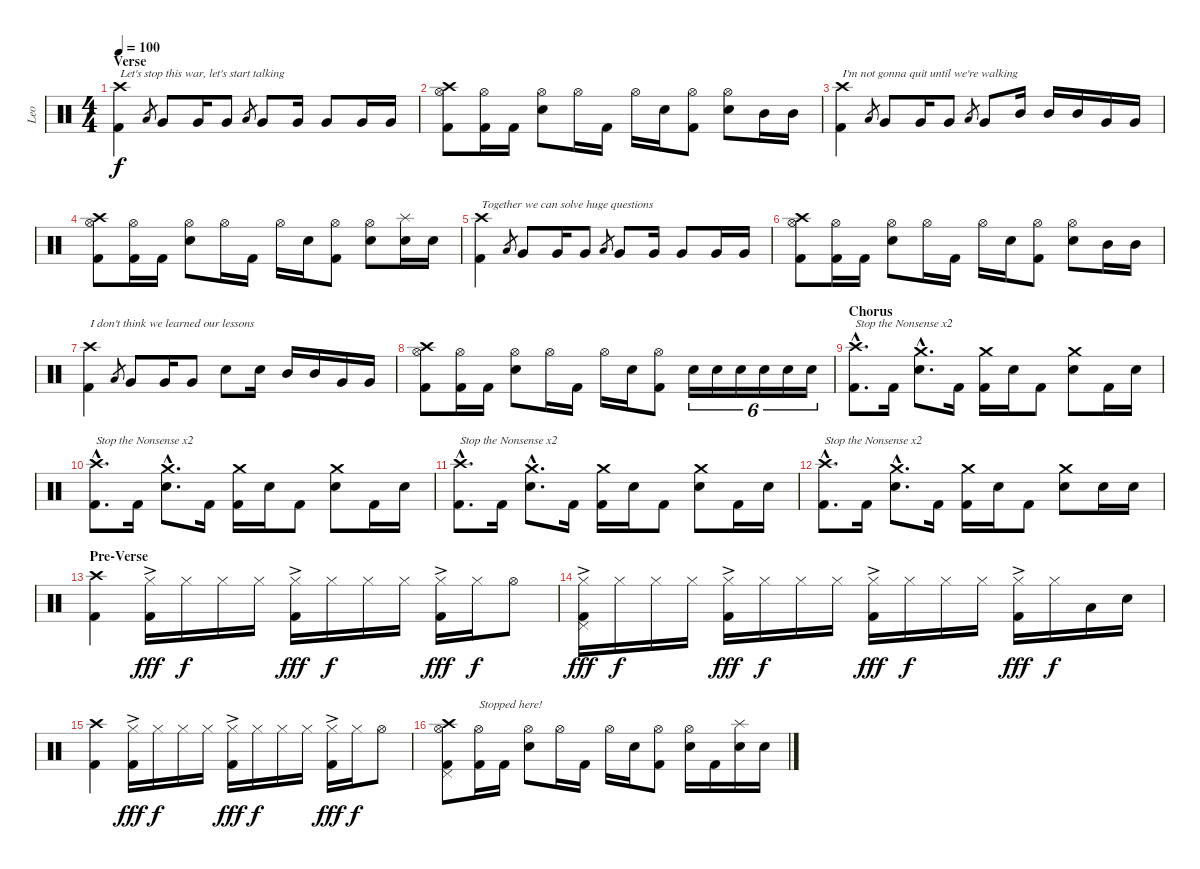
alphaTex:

\track ("Leo" "Leo") {instrument percussion}
\staff {score}
\articulation defaults
\ts (4 4)
\section ("" "Verse")
\tempo 100
\clef neutral
\ks c
("Crash high (hit)" "Kick (hit) 2").4{txt "Let's stop this war, let's start talking" dy f} "Low Tom (hit)".8{gr} "Very Low Tom (hit)".8 "Very Low Tom (hit)".16 "Very Low Tom (hit)".8 "Low Tom (hit)".8{gr} "Very Low Tom (hit)".8 "Very Low Tom (hit)".16 "Very Low Tom (hit)".8 "Very Low Tom (hit)".16 "Very Low Tom (hit)".16 |
("Hi-Hat (open)" "Crash high (hit)" "Kick (hit) 2").8 ("Hi-Hat (open)" "Kick (hit) 2").16 "Kick (hit) 2".16 ("Hi-Hat (open)" "Electric Snare (hit)").8 "Hi-Hat (open)".16 "Kick (hit) 2".16 "Hi-Hat (open)".16 "Electric Snare (hit)".16 ("Hi-Hat (open)" "Kick (hit) 2").8 ("Hi-Hat (open)" "Electric Snare (hit)").8 "Mid Tom (hit)".16 "Mid Tom (hit)".16 |
("Crash high (hit)" "Kick (hit) 2").4{txt "I'm not gonna quit until we're walking"} "Low Tom (hit)".8{gr} "Very Low Tom (hit)".8 "Very Low Tom (hit)".16 "Very Low Tom (hit)".8 "Low Tom (hit)".8{gr} "Very Low Tom (hit)".8 "Mid Tom (hit)".16 "Mid Tom (hit)".16 "Mid Tom (hit)".16 "Very Low Tom (hit)".16 "Very Low Tom (hit)".16 |
("Hi-Hat (open)" "Crash high (hit)" "Kick (hit) 2").8 ("Hi-Hat (open)" "Kick (hit) 2").16 "Kick (hit) 2".16 ("Hi-Hat (open)" "Electric Snare (hit)").8 "Hi-Hat (open)".16 "Kick (hit) 2".16 "Hi-Hat (open)".16 "Electric Snare (hit)".16 ("Hi-Hat (open)" "Kick (hit) 2").8 ("Hi-Hat (open)" "Electric Snare (hit)").8 ("Splash (hit)" "Electric Snare (hit)").16 "Electric Snare (hit)".16 |
("Crash high (hit)" "Kick (hit) 2").4{txt "Together we can solve huge questions"} "Low Tom (hit)".8{gr} "Very Low Tom (hit)".8 "Very Low Tom (hit)".16 "Very Low Tom (hit)".8 "Low Tom (hit)".8{gr} "Very Low Tom (hit)".8 "Very Low Tom (hit)".16 "Very Low Tom (hit)".8 "Very Low Tom (hit)".16 "Very Low Tom (hit)".16 |
("Hi-Hat (open)" "Crash high (hit)" "Kick (hit) 2").8 ("Hi-Hat (open)" "Kick (hit) 2").16 "Kick (hit) 2".16 ("Hi-Hat (open)" "Electric Snare (hit)").8 "Hi-Hat (open)".16 "Kick (hit) 2".16 "Hi-Hat (open)".16 "Electric Snare (hit)".16 ("Hi-Hat (open)" "Kick (hit) 2").8 ("Hi-Hat (open)" "Electric Snare (hit)").8 "Mid Tom (hit)".16 "Mid Tom (hit)".16 |
("Crash high (hit)" "Kick (hit) 2").4{txt "I don't think we learned our lessons"} "Low Tom (hit)".8{gr} "Very Low Tom (hit)".8 "Very Low Tom (hit)".16 "Very Low Tom (hit)".8 "Electric Snare (hit)".8 "Electric Snare (hit)".16 "Mid Tom (hit)".16 "Mid Tom (hit)".16 "Very Low Tom (hit)".16 "Very Low Tom (hit)".16 |
("Hi-Hat (open)" "Crash high (hit)" "Kick (hit) 2").8 ("Hi-Hat (open)" "Kick (hit) 2").16 "Kick (hit) 2".16 ("Hi-Hat (open)" "Electric Snare (hit)").8 "Hi-Hat (open)".16 "Kick (hit) 2".16 "Hi-Hat (open)".16 "Electric Snare (hit)".16 ("Hi-Hat (open)" "Kick (hit) 2").8 "Electric Snare (hit)".16{tu (6 4)} "Electric Snare (hit)".16{tu (6 4)} "Electric Snare (hit)".16{tu (6 4)} "Electric Snare (hit)".16{tu (6 4)} "Electric Snare (hit)".16{tu (6 4)} "Electric Snare (hit)".16{tu (6 4)} |
\section ("" "Chorus")
("Crash high (hit)"{hac} "Kick (hit) 2"{hac}).8{d txt "Stop the Nonsense x2"} "Kick (hit) 2".16 ("Crash medium (hit)"{hac} "Electric Snare (hit)"{hac}).8{d} "Kick (hit) 2".16 ("Crash medium (hit)" "Kick (hit) 2").16 "Electric Snare (hit)".16 "Kick (hit) 2".8 ("Crash medium (hit)" "Electric Snare (hit)").8 "Kick (hit) 2".16 "Electric Snare (hit)".16 |
("Crash high (hit)"{hac} "Kick (hit) 2"{hac}).8{d txt "Stop the Nonsense x2"} "Kick (hit) 2".16 ("Crash medium (hit)"{hac} "Electric Snare (hit)"{hac}).8{d} "Kick (hit) 2".16 ("Crash medium (hit)" "Kick (hit) 2").16 "Electric Snare (hit)".16 "Kick (hit) 2".8 ("Crash medium (hit)" "Electric Snare (hit)").8 "Kick (hit) 2".16 "Electric Snare (hit)".16 |
("Crash high (hit)"{hac} "Kick (hit) 2"{hac}).8{d txt "Stop the Nonsense x2"} "Kick (hit) 2".16 ("Crash medium (hit)"{hac} "Electric Snare (hit)"{hac}).8{d} "Kick (hit) 2".16 ("Crash medium (hit)" "Kick (hit) 2").16 "Electric Snare (hit)".16 "Kick (hit) 2".8 ("Crash medium (hit)" "Electric Snare (hit)").8 "Kick (hit) 2".16 "Electric Snare (hit)".16 |
("Crash high (hit)"{hac} "Kick (hit) 2"{hac}).8{d txt "Stop the Nonsense x2"} "Kick (hit) 2".16 ("Crash medium (hit)"{hac} "Electric Snare (hit)"{hac}).8{d} "Kick (hit) 2".16 ("Crash medium (hit)" "Kick (hit) 2").16 "Electric Snare (hit)".16 "Kick (hit) 2".8 ("Crash medium (hit)" "Electric Snare (hit)").8 "Electric Snare (hit)".16 "Electric Snare (hit)".16 |
\section ("" "Pre-Verse")
("Crash high (hit)" "Kick (hit) 2").4 ("Hi-Hat (closed)"{ac} "Kick (hit) 2").16{dy fff} "Hi-Hat (closed)".16{dy f} "Hi-Hat (closed)".16 "Hi-Hat (closed)".16 ("Hi-Hat (closed)"{ac} "Kick (hit) 2").16{dy fff} "Hi-Hat (closed)".16{dy f} "Hi-Hat (closed)".16 "Hi-Hat (closed)".16 ("Hi-Hat (closed)"{ac} "Kick (hit) 2").16{dy fff} "Hi-Hat (closed)".16{dy f} "Hi-Hat (open)".8 |
("Hi-Hat (closed)"{ac} "Pedal Hi-Hat (hit)" "Kick (hit) 2").16{dy fff} "Hi-Hat (closed)".16{dy f} "Hi-Hat (closed)".16 "Hi-Hat (closed)".16 ("Hi-Hat (closed)"{ac} "Kick (hit) 2").16{dy fff} "Hi-Hat (closed)".16{dy f} "Hi-Hat (closed)".16 "Hi-Hat (closed)".16 ("Hi-Hat (closed)"{ac} "Kick (hit) 2").16{dy fff} "Hi-Hat (closed)".16{dy f} "Hi-Hat (closed)".16 "Hi-Hat (closed)".16 ("Hi-Hat (closed)"{ac} "Kick (hit) 2").16{dy fff} "Hi-Hat (closed)".16{dy f} "Low Tom (hit)".16 "Electric Snare (hit)".16 |
("Crash high (hit)" "Kick (hit) 2").4 ("Hi-Hat (closed)"{ac} "Kick (hit) 2").16{dy fff} "Hi-Hat (closed)".16{dy f} "Hi-Hat (closed)".16 "Hi-Hat (closed)".16 ("Hi-Hat (closed)"{ac} "Kick (hit) 2").16{dy fff} "Hi-Hat (closed)".16{dy f} "Hi-Hat (closed)".16 "Hi-Hat (closed)".16 ("Hi-Hat (closed)"{ac} "Kick (hit) 2").16{dy fff} "Hi-Hat (closed)".16{dy f} "Hi-Hat (open)".8 |
("Hi-Hat (open)" "Crash high (hit)" "Pedal Hi-Hat (hit)" "Kick (hit) 2").8 ("Hi-Hat (open)" "Kick (hit) 2").16{txt "Stopped here!"} "Kick (hit) 2".16 ("Hi-Hat (open)" "Electric Snare (hit)").8 "Hi-Hat (open)".16 "Kick (hit) 2".16 "Hi-Hat (open)".16 "Electric Snare (hit)".16 ("Hi-Hat (open)" "Kick (hit) 2").8 ("Hi-Hat (open)" "Electric Snare (hit)").16 "Kick (hit) 2".16 ("Splash (hit)" "Electric Snare (hit)").16 "Electric Snare (hit)".16
